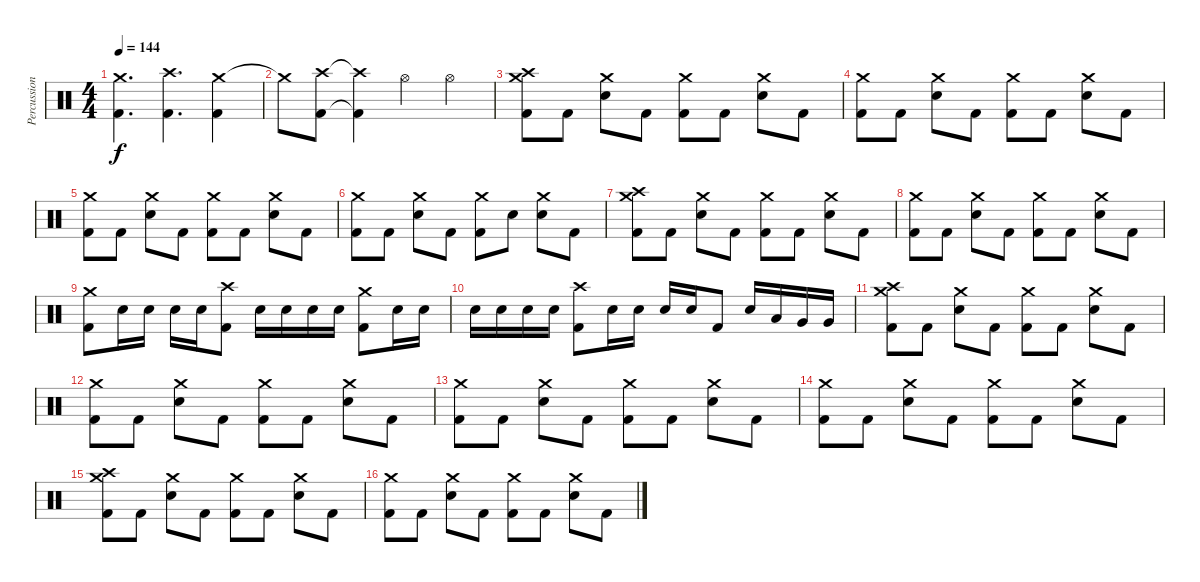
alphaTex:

\track ("Percussion" "Percussion") {instrument percussion}
\staff {score}
\articulation defaults
\ts (4 4)
\tempo 144
\clef neutral
\ks c
("Crash medium (hit)" "Kick (hit) 2").4{d dy f} ("Crash high (hit)" "Kick (hit) 2").4{d} ("Crash medium (hit)" "Kick (hit) 2").4 |
"Crash medium (hit)"{t}.8 ("Crash high (hit)" "Kick (hit) 2").8 ("Crash high (hit)"{t} "Kick (hit) 2"{t}).4 "Hi-Hat (open)".4 "Hi-Hat (open)".4 |
("Crash medium (hit)" "Crash high (hit)" "Kick (hit) 2").8 "Kick (hit) 2".8 ("Crash medium (hit)" "Electric Snare (hit)").8 "Kick (hit) 2".8 ("Crash medium (hit)" "Kick (hit) 2").8 "Kick (hit) 2".8 ("Crash medium (hit)" "Electric Snare (hit)").8 "Kick (hit) 2".8 |
("Crash medium (hit)" "Kick (hit) 2").8 "Kick (hit) 2".8 ("Crash medium (hit)" "Electric Snare (hit)").8 "Kick (hit) 2".8 ("Crash medium (hit)" "Kick (hit) 2").8 "Kick (hit) 2".8 ("Crash medium (hit)" "Electric Snare (hit)").8 "Kick (hit) 2".8 |
("Crash medium (hit)" "Kick (hit) 2").8 "Kick (hit) 2".8 ("Crash medium (hit)" "Electric Snare (hit)").8 "Kick (hit) 2".8 ("Crash medium (hit)" "Kick (hit) 2").8 "Kick (hit) 2".8 ("Crash medium (hit)" "Electric Snare (hit)").8 "Kick (hit) 2".8 |
("Crash medium (hit)" "Kick (hit) 2").8 "Kick (hit) 2".8 ("Crash medium (hit)" "Electric Snare (hit)").8 "Kick (hit) 2".8 ("Crash medium (hit)" "Kick (hit) 2").8 "Electric Snare (hit)".8 ("Crash medium (hit)" "Electric Snare (hit)").8 "Kick (hit) 2".8 |
("Crash medium (hit)" "Crash high (hit)" "Kick (hit) 2").8 "Kick (hit) 2".8 ("Crash medium (hit)" "Electric Snare (hit)").8 "Kick (hit) 2".8 ("Crash medium (hit)" "Kick (hit) 2").8 "Kick (hit) 2".8 ("Crash medium (hit)" "Electric Snare (hit)").8 "Kick (hit) 2".8 |
("Crash medium (hit)" "Kick (hit) 2").8 "Kick (hit) 2".8 ("Crash medium (hit)" "Electric Snare (hit)").8 "Kick (hit) 2".8 ("Crash medium (hit)" "Kick (hit) 2").8 "Kick (hit) 2".8 ("Crash medium (hit)" "Electric Snare (hit)").8 "Kick (hit) 2".8 |
("Crash medium (hit)" "Kick (hit) 2").8 "Electric Snare (hit)".16 "Electric Snare (hit)".16 "Electric Snare (hit)".16 "Electric Snare (hit)".16 ("Crash high (hit)" "Kick (hit) 2").8 "Electric Snare (hit)".16 "Electric Snare (hit)".16 "Electric Snare (hit)".16 "Electric Snare (hit)".16 ("Crash medium (hit)" "Kick (hit) 2").8 "Electric Snare (hit)".16 "Electric Snare (hit)".16 |
"Electric Snare (hit)".16 "Electric Snare (hit)".16 "Electric Snare (hit)".16 "Electric Snare (hit)".16 ("Crash high (hit)" "Kick (hit) 2").8 "Electric Snare (hit)".16 "Electric Snare (hit)".16 "Electric Snare (hit)".16 "Electric Snare (hit)".16 "Kick (hit) 2".8 "Electric Snare (hit)".16 "Low Tom (hit)".16 "Very Low Tom (hit)".16 "Very Low Tom (hit)".16 |
("Crash medium (hit)" "Crash high (hit)" "Kick (hit) 2").8 "Kick (hit) 2".8 ("Crash medium (hit)" "Electric Snare (hit)").8 "Kick (hit) 2".8 ("Crash medium (hit)" "Kick (hit) 2").8 "Kick (hit) 2".8 ("Crash medium (hit)" "Electric Snare (hit)").8 "Kick (hit) 2".8 |
("Crash medium (hit)" "Kick (hit) 2").8 "Kick (hit) 2".8 ("Crash medium (hit)" "Electric Snare (hit)").8 "Kick (hit) 2".8 ("Crash medium (hit)" "Kick (hit) 2").8 "Kick (hit) 2".8 ("Crash medium (hit)" "Electric Snare (hit)").8 "Kick (hit) 2".8 |
("Crash medium (hit)" "Kick (hit) 2").8 "Kick (hit) 2".8 ("Crash medium (hit)" "Electric Snare (hit)").8 "Kick (hit) 2".8 ("Crash medium (hit)" "Kick (hit) 2").8 "Kick (hit) 2".8 ("Crash medium (hit)" "Electric Snare (hit)").8 "Kick (hit) 2".8 |
("Crash medium (hit)" "Kick (hit) 2").8 "Kick (hit) 2".8 ("Crash medium (hit)" "Electric Snare (hit)").8 "Kick (hit) 2".8 ("Crash medium (hit)" "Kick (hit) 2").8 "Kick (hit) 2".8 ("Crash medium (hit)" "Electric Snare (hit)").8 "Kick (hit) 2".8 |
("Crash medium (hit)" "Crash high (hit)" "Kick (hit) 2").8 "Kick (hit) 2".8 ("Crash medium (hit)" "Electric Snare (hit)").8 "Kick (hit) 2".8 ("Crash medium (hit)" "Kick (hit) 2").8 "Kick (hit) 2".8 ("Crash medium (hit)" "Electric Snare (hit)").8 "Kick (hit) 2".8 |
("Crash medium (hit)" "Kick (hit) 2").8 "Kick (hit) 2".8 ("Crash medium (hit)" "Electric Snare (hit)").8 "Kick (hit) 2".8 ("Crash medium (hit)" "Kick (hit) 2").8 "Kick (hit) 2".8 ("Crash medium (hit)" "Electric Snare (hit)").8 "Kick (hit) 2".8
